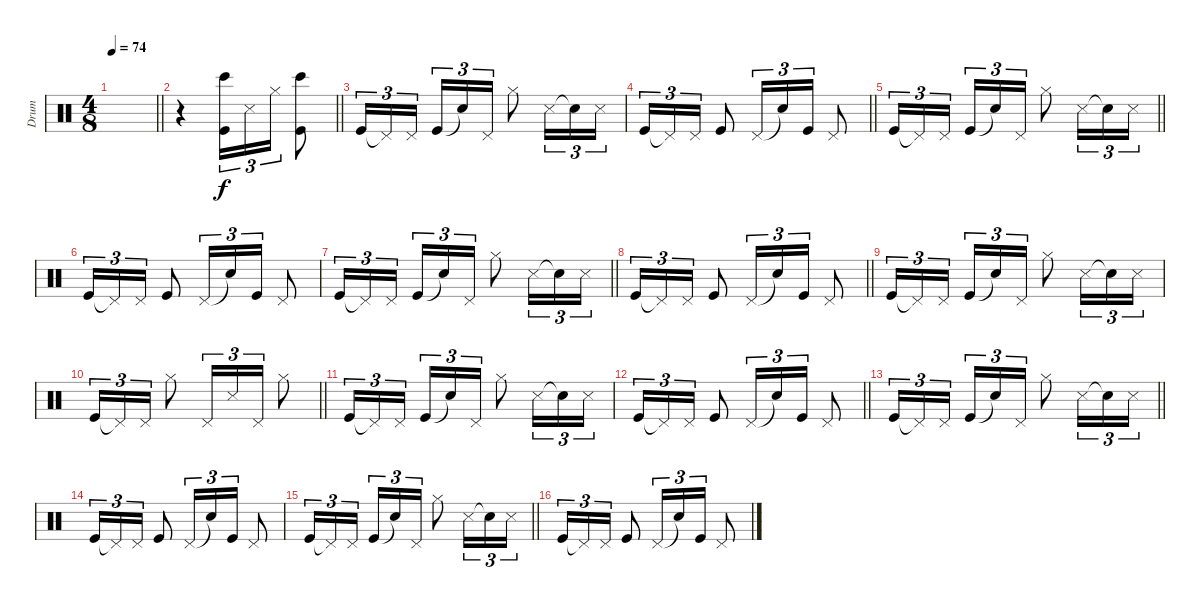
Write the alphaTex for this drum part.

\track ("Drum" "Drum") {instrument percussion}
\staff {score}
\articulation defaults
\ts (4 8)
\tempo 74
\clef neutral
\barLineRight lightlight
\ks c
|
\section ("" " ")
\barLineRight lightlight
r.4 ("Bongo High (hit)" "Kick (hit)").16{tu (3 2)} "Snare (side stick) 3".16{tu (3 2)} "Hi-Hat (closed)".16{tu (3 2)} ("Bongo High (hit)" "Kick (hit)").8 |
\section ("" "")
"Kick (hit)".16{tu (3 2)} "Pedal Hi-Hat (hit)"{t}.16{tu (3 2)} "Pedal Hi-Hat (hit)".16{tu (3 2)} "Kick (hit)".16{tu (3 2)} "Snare (hit)"{t}.16{tu (3 2)} "Pedal Hi-Hat (hit)".16{tu (3 2)} "Hi-Hat (closed)".8 "Snare (side stick) 3".16{tu (3 2)} "Snare (hit)"{t}.16{tu (3 2)} "Snare (side stick) 3".16{tu (3 2)} |
\barLineRight lightlight "Kick (hit)".16{tu (3 2)} "Pedal Hi-Hat (hit)"{t}.16{tu (3 2)} "Pedal Hi-Hat (hit)".16{tu (3 2)} "Kick (hit)".8 "Pedal Hi-Hat (hit)".16{tu (3 2)} "Snare (hit)"{t}.16{tu (3 2)} "Kick (hit)".16{tu (3 2)} "Pedal Hi-Hat (hit)".8
|
\section ("" "")
\barLineRight lightlight "Kick (hit)".16{tu (3 2)} "Pedal Hi-Hat (hit)"{t}.16{tu (3 2)} "Pedal Hi-Hat (hit)".16{tu (3 2)} "Kick (hit)".16{tu (3 2)} "Snare (hit)"{t}.16{tu (3 2)} "Pedal Hi-Hat (hit)".16{tu (3 2)} "Hi-Hat (closed)".8 "Snare (side stick) 3".16{tu (3 2)} "Snare (hit)"{t}.16{tu (3 2)} "Snare (side stick) 3".16{tu (3 2)}
|
\section ("" "")
"Kick (hit)".16{tu (3 2)} "Pedal Hi-Hat (hit)"{t}.16{tu (3 2)} "Pedal Hi-Hat (hit)".16{tu (3 2)} "Kick (hit)".8 "Pedal Hi-Hat (hit)".16{tu (3 2)} "Snare (hit)"{t}.16{tu (3 2)} "Kick (hit)".16{tu (3 2)} "Pedal Hi-Hat (hit)".8 |
\barLineRight lightlight "Kick (hit)".16{tu (3 2)} "Pedal Hi-Hat (hit)"{t}.16{tu (3 2)} "Pedal Hi-Hat (hit)".16{tu (3 2)} "Kick (hit)".16{tu (3 2)} "Snare (hit)"{t}.16{tu (3 2)} "Pedal Hi-Hat (hit)".16{tu (3 2)} "Hi-Hat (closed)".8 "Snare (side stick) 3".16{tu (3 2)} "Snare (hit)"{t}.16{tu (3 2)} "Snare (side stick) 3".16{tu (3 2)}
|
\section ("" " ")
\barLineRight lightlight "Kick (hit)".16{tu (3 2)} "Pedal Hi-Hat (hit)"{t}.16{tu (3 2)} "Pedal Hi-Hat (hit)".16{tu (3 2)} "Kick (hit)".8 "Pedal Hi-Hat (hit)".16{tu (3 2)} "Snare (hit)"{t}.16{tu (3 2)} "Kick (hit)".16{tu (3 2)} "Pedal Hi-Hat (hit)".8
|
\section ("" "")
"Kick (hit)".16{tu (3 2)} "Pedal Hi-Hat (hit)"{t}.16{tu (3 2)} "Pedal Hi-Hat (hit)".16{tu (3 2)} "Kick (hit)".16{tu (3 2)} "Snare (hit)"{t}.16{tu (3 2)} "Pedal Hi-Hat (hit)".16{tu (3 2)} "Hi-Hat (closed)".8 "Snare (side stick) 3".16{tu (3 2)} "Snare (hit)"{t}.16{tu (3 2)} "Snare (side stick) 3".16{tu (3 2)} |
\barLineRight lightlight "Kick (hit)".16{tu (3 2)} "Pedal Hi-Hat (hit)"{t}.16{tu (3 2)} "Pedal Hi-Hat (hit)".16{tu (3 2)} "Hi-Hat (closed)".8 "Pedal Hi-Hat (hit)".16{tu (3 2)} "Snare (side stick) 3".16{tu (3 2)} "Pedal Hi-Hat (hit)".16{tu (3 2)} "Hi-Hat (closed)".8
|
\section ("" "")
"Kick (hit)".16{tu (3 2)} "Pedal Hi-Hat (hit)"{t}.16{tu (3 2)} "Pedal Hi-Hat (hit)".16{tu (3 2)} "Kick (hit)".16{tu (3 2)} "Snare (hit)"{t}.16{tu (3 2)} "Pedal Hi-Hat (hit)".16{tu (3 2)} "Hi-Hat (closed)".8 "Snare (side stick) 3".16{tu (3 2)} "Snare (hit)"{t}.16{tu (3 2)} "Snare (side stick) 3".16{tu (3 2)} |
\barLineRight lightlight "Kick (hit)".16{tu (3 2)} "Pedal Hi-Hat (hit)"{t}.16{tu (3 2)} "Pedal Hi-Hat (hit)".16{tu (3 2)} "Kick (hit)".8 "Pedal Hi-Hat (hit)".16{tu (3 2)} "Snare (hit)"{t}.16{tu (3 2)} "Kick (hit)".16{tu (3 2)} "Pedal Hi-Hat (hit)".8
|
\section ("" "")
\barLineRight lightlight "Kick (hit)".16{tu (3 2)} "Pedal Hi-Hat (hit)"{t}.16{tu (3 2)} "Pedal Hi-Hat (hit)".16{tu (3 2)} "Kick (hit)".16{tu (3 2)} "Snare (hit)"{t}.16{tu (3 2)} "Pedal Hi-Hat (hit)".16{tu (3 2)} "Hi-Hat (closed)".8 "Snare (side stick) 3".16{tu (3 2)} "Snare (hit)"{t}.16{tu (3 2)} "Snare (side stick) 3".16{tu (3 2)}
|
\section ("" "")
"Kick (hit)".16{tu (3 2)} "Pedal Hi-Hat (hit)"{t}.16{tu (3 2)} "Pedal Hi-Hat (hit)".16{tu (3 2)} "Kick (hit)".8 "Pedal Hi-Hat (hit)".16{tu (3 2)} "Snare (hit)"{t}.16{tu (3 2)} "Kick (hit)".16{tu (3 2)} "Pedal Hi-Hat (hit)".8 |
\barLineRight lightlight "Kick (hit)".16{tu (3 2)} "Pedal Hi-Hat (hit)"{t}.16{tu (3 2)} "Pedal Hi-Hat (hit)".16{tu (3 2)} "Kick (hit)".16{tu (3 2)} "Snare (hit)"{t}.16{tu (3 2)} "Pedal Hi-Hat (hit)".16{tu (3 2)} "Hi-Hat (closed)".8 "Snare (side stick) 3".16{tu (3 2)} "Snare (hit)"{t}.16{tu (3 2)} "Snare (side stick) 3".16{tu (3 2)}
|
\section ("" "")
"Kick (hit)".16{tu (3 2)} "Pedal Hi-Hat (hit)"{t}.16{tu (3 2)} "Pedal Hi-Hat (hit)".16{tu (3 2)} "Kick (hit)".8 "Pedal Hi-Hat (hit)".16{tu (3 2)} "Snare (hit)"{t}.16{tu (3 2)} "Kick (hit)".16{tu (3 2)} "Pedal Hi-Hat (hit)".8
